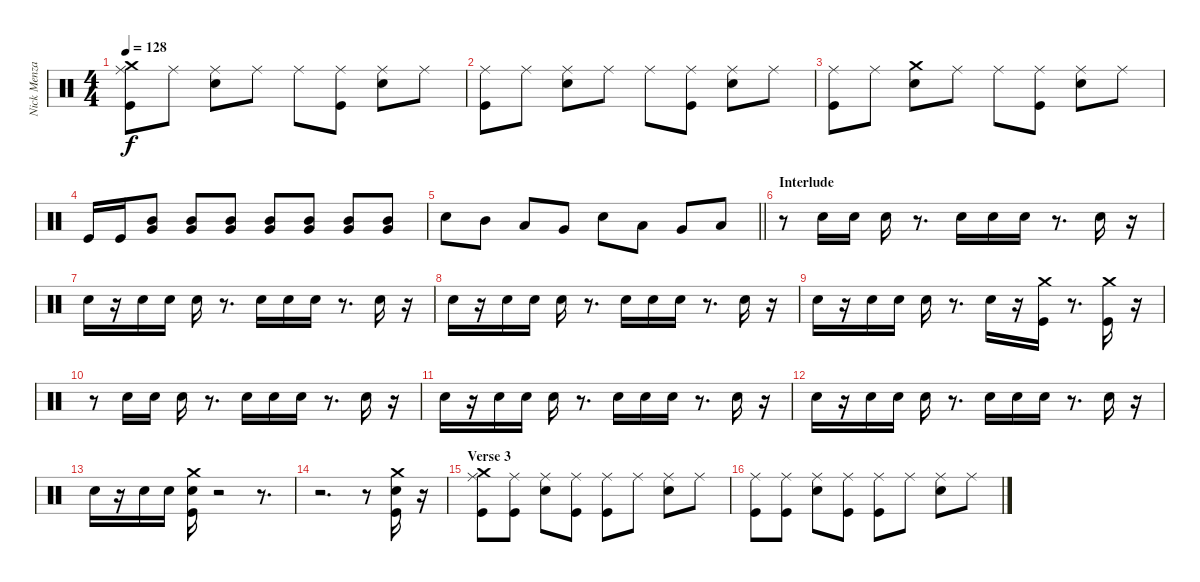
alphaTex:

\track ("Nick Menza" "Nick Menza") {instrument percussion}
\staff {score}
\articulation defaults
\ts (4 4)
\tempo 128
\clef neutral
\ks c
("Crash medium (hit)" "Ride (middle)" "Kick (hit)").8{dy f} "Ride (middle)".8 ("Ride (middle)" "Electric Snare (hit)").8 "Ride (middle)".8 "Ride (middle)".8 ("Kick (hit)" "Ride (middle)").8 ("Ride (middle)" "Electric Snare (hit)").8 "Ride (middle)".8 |
("Ride (middle)" "Kick (hit)").8 "Ride (middle)".8 ("Electric Snare (hit)" "Ride (middle)").8 "Ride (middle)".8 "Ride (middle)".8 ("Kick (hit)" "Ride (middle)").8 ("Ride (middle)" "Electric Snare (hit)").8 "Ride (middle)".8 |
("Ride (middle)" "Kick (hit)").8 "Ride (middle)".8 ("Crash medium (hit)" "Electric Snare (hit)").8 "Ride (middle)".8 "Ride (middle)".8 ("Kick (hit)" "Ride (middle)").8 ("Ride (middle)" "Electric Snare (hit)").8 "Ride (middle)".8 |
"Kick (hit)".16 "Kick (hit)".16 ("Mid Tom (hit)" "Very Low Tom (hit)").8 ("Mid Tom (hit)" "Very Low Tom (hit)").8 ("Mid Tom (hit)" "Very Low Tom (hit)").8 ("Mid Tom (hit)" "Very Low Tom (hit)").8 ("Mid Tom (hit)" "Very Low Tom (hit)").8 ("Mid Tom (hit)" "Very Low Tom (hit)").8 ("Mid Tom (hit)" "Very Low Tom (hit)").8 |
\barLineRight lightlight "Electric Snare (hit)".8 "Mid Tom (hit)".8 "Low Tom (hit)".8 "Very Low Tom (hit)".8 "Electric Snare (hit)".8 "Low Tom (hit)".8 "Very Low Tom (hit)".8 "Low Floor Tom (hit)".8
|
\section ("" "Interlude")
r.8 "Electric Snare (hit)".16 "Electric Snare (hit)".16 "Electric Snare (hit)".16 r.8{d} "Electric Snare (hit)".16 "Electric Snare (hit)".16 "Electric Snare (hit)".16 r.8{d} "Electric Snare (hit)".16 r.16 |
"Electric Snare (hit)".16 r.16 "Electric Snare (hit)".16 "Electric Snare (hit)".16 "Electric Snare (hit)".16 r.8{d} "Electric Snare (hit)".16 "Electric Snare (hit)".16 "Electric Snare (hit)".16 r.8{d} "Electric Snare (hit)".16 r.16 |
"Electric Snare (hit)".16 r.16 "Electric Snare (hit)".16 "Electric Snare (hit)".16 "Electric Snare (hit)".16 r.8{d} "Electric Snare (hit)".16 "Electric Snare (hit)".16 "Electric Snare (hit)".16 r.8{d} "Electric Snare (hit)".16 r.16 |
"Electric Snare (hit)".16 r.16 "Electric Snare (hit)".16 "Electric Snare (hit)".16 "Electric Snare (hit)".16 r.8{d} "Electric Snare (hit)".16 r.16 ("Kick (hit)" "Crash medium (hit)").16 r.8{d} ("Kick (hit)" "Crash medium (hit)").16 r.16 |
r.8 "Electric Snare (hit)".16 "Electric Snare (hit)".16 "Electric Snare (hit)".16 r.8{d} "Electric Snare (hit)".16 "Electric Snare (hit)".16 "Electric Snare (hit)".16 r.8{d} "Electric Snare (hit)".16 r.16 |
"Electric Snare (hit)".16 r.16 "Electric Snare (hit)".16 "Electric Snare (hit)".16 "Electric Snare (hit)".16 r.8{d} "Electric Snare (hit)".16 "Electric Snare (hit)".16 "Electric Snare (hit)".16 r.8{d} "Electric Snare (hit)".16 r.16 |
"Electric Snare (hit)".16 r.16 "Electric Snare (hit)".16 "Electric Snare (hit)".16 "Electric Snare (hit)".16 r.8{d} "Electric Snare (hit)".16 "Electric Snare (hit)".16 "Electric Snare (hit)".16 r.8{d} "Electric Snare (hit)".16 r.16 |
"Electric Snare (hit)".16 r.16 "Electric Snare (hit)".16 "Electric Snare (hit)".16 ("Kick (hit)" "Crash medium (hit)" "Electric Snare (hit)").16 r.2 r.8{d} |
r.2{d} r.8 ("Kick (hit)" "Electric Snare (hit)" "Crash medium (hit)").16 r.16 |
\section ("" "Verse 3")
("Ride (middle)" "Crash medium (hit)" "Kick (hit)").8 ("Ride (middle)" "Kick (hit)").8 ("Ride (middle)" "Electric Snare (hit)").8 ("Ride (middle)" "Kick (hit)").8 ("Kick (hit)" "Ride (middle)").8 "Ride (middle)".8 ("Ride (middle)" "Electric Snare (hit)").8 "Ride (middle)".8 |
("Ride (middle)" "Kick (hit)").8 ("Ride (middle)" "Kick (hit)").8 ("Ride (middle)" "Electric Snare (hit)").8 ("Ride (middle)" "Kick (hit)").8 ("Kick (hit)" "Ride (middle)").8 "Ride (middle)".8 ("Ride (middle)" "Electric Snare (hit)").8 "Ride (middle)".8
